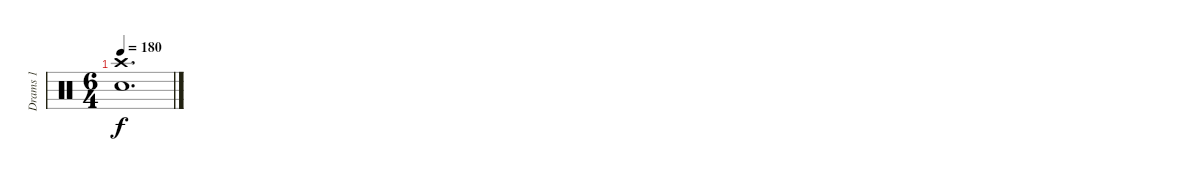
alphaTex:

\track ("Drams 1" "Drams 1") {instrument percussion}
\staff {score}
\articulation defaults
\ts (6 4)
\tempo 180
\clef neutral
\ks c
("Snare (hit) 2" "Crash high (hit)").1{d dy f}
